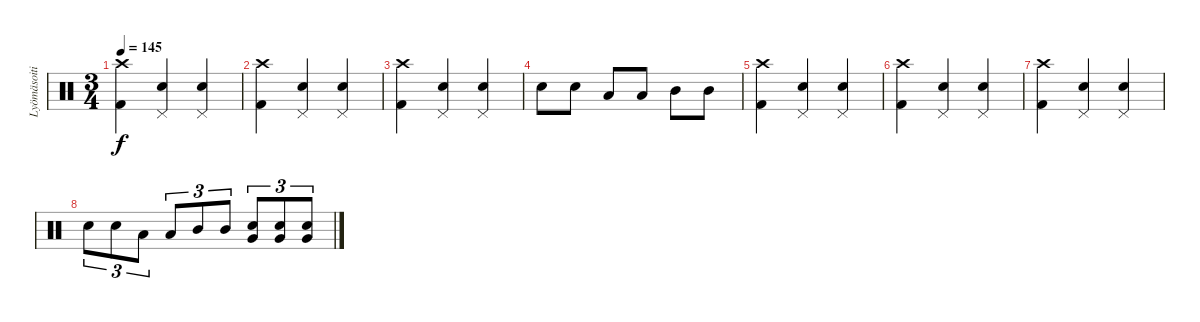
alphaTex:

\track ("Lyömäsoitin" "Lyömäsoiti") {instrument percussion}
\staff {score}
\articulation defaults
\ts (3 4)
\tempo 145
\clef neutral
\ks c
("Crash high (hit)" "Kick (hit) 2").4{dy f} ("Pedal Hi-Hat (hit)" "Snare (hit) 2").4 ("Pedal Hi-Hat (hit)" "Snare (hit) 2").4 |
("Crash high (hit)" "Kick (hit) 2").4 ("Pedal Hi-Hat (hit)" "Snare (hit) 2").4 ("Pedal Hi-Hat (hit)" "Snare (hit) 2").4 |
("Crash high (hit)" "Kick (hit) 2").4 ("Pedal Hi-Hat (hit)" "Snare (hit) 2").4 ("Pedal Hi-Hat (hit)" "Snare (hit) 2").4 |
"Snare (hit) 2".8 "Snare (hit) 2".8 "Low Tom (hit)".8 "Low Tom (hit)".8 "Mid Tom (hit)".8 "Mid Tom (hit)".8 |
("Crash high (hit)" "Kick (hit) 2").4 ("Pedal Hi-Hat (hit)" "Snare (hit) 2").4 ("Pedal Hi-Hat (hit)" "Snare (hit) 2").4 |
("Crash high (hit)" "Kick (hit) 2").4 ("Pedal Hi-Hat (hit)" "Snare (hit) 2").4 ("Pedal Hi-Hat (hit)" "Snare (hit) 2").4 |
("Crash high (hit)" "Kick (hit) 2").4 ("Pedal Hi-Hat (hit)" "Snare (hit) 2").4 ("Pedal Hi-Hat (hit)" "Snare (hit) 2").4 |
"Snare (hit) 2".8{tu (3 2)} "Snare (hit) 2".8{tu (3 2)} "Low Tom (hit)".8{tu (3 2)} "Low Tom (hit)".8{tu (3 2)} "Mid Tom (hit)".8{tu (3 2)} "Mid Tom (hit)".8{tu (3 2)} ("Very Low Tom (hit)" "Snare (hit) 2").8{tu (3 2)} ("Very Low Tom (hit)" "Snare (hit) 2").8{tu (3 2)} ("Very Low Tom (hit)" "Snare (hit) 2").8{tu (3 2)}
